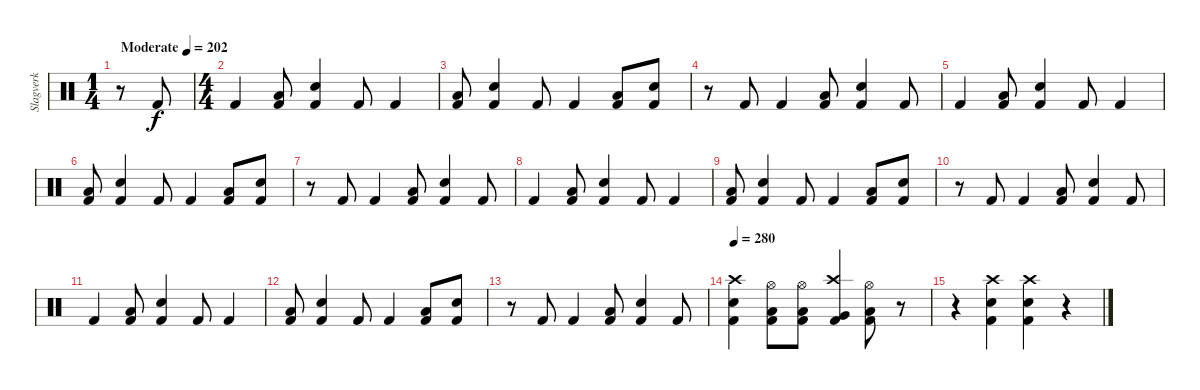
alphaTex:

\track ("Slagverk" "Slagverk") {instrument percussion}
\staff {score}
\articulation defaults
\ts (1 4)
\tempo (202 "Moderate")
\clef neutral
\ks c
r.8{dy f} "Kick (hit) 2".8 |
\ts (4 4)
"Kick (hit) 2".4 ("Low Floor Tom (hit)" "Kick (hit) 2").8 ("Snare (hit) 2" "Kick (hit) 2").4 "Kick (hit) 2".8 "Kick (hit) 2".4 |
("Low Floor Tom (hit)" "Kick (hit) 2").8 ("Snare (hit) 2" "Kick (hit) 2").4 "Kick (hit) 2".8 "Kick (hit) 2".4 ("Low Floor Tom (hit)" "Kick (hit) 2").8 ("Snare (hit) 2" "Kick (hit) 2").8 |
r.8 "Kick (hit) 2".8 "Kick (hit) 2".4 ("Low Floor Tom (hit)" "Kick (hit) 2").8 ("Snare (hit) 2" "Kick (hit) 2").4 "Kick (hit) 2".8 |
"Kick (hit) 2".4 ("Low Floor Tom (hit)" "Kick (hit) 2").8 ("Snare (hit) 2" "Kick (hit) 2").4 "Kick (hit) 2".8 "Kick (hit) 2".4 |
("Low Floor Tom (hit)" "Kick (hit) 2").8 ("Snare (hit) 2" "Kick (hit) 2").4 "Kick (hit) 2".8 "Kick (hit) 2".4 ("Low Floor Tom (hit)" "Kick (hit) 2").8 ("Snare (hit) 2" "Kick (hit) 2").8 |
r.8 "Kick (hit) 2".8 "Kick (hit) 2".4 ("Low Floor Tom (hit)" "Kick (hit) 2").8 ("Snare (hit) 2" "Kick (hit) 2").4 "Kick (hit) 2".8 |
"Kick (hit) 2".4 ("Low Floor Tom (hit)" "Kick (hit) 2").8 ("Snare (hit) 2" "Kick (hit) 2").4 "Kick (hit) 2".8 "Kick (hit) 2".4 |
("Low Floor Tom (hit)" "Kick (hit) 2").8 ("Snare (hit) 2" "Kick (hit) 2").4 "Kick (hit) 2".8 "Kick (hit) 2".4 ("Low Floor Tom (hit)" "Kick (hit) 2").8 ("Snare (hit) 2" "Kick (hit) 2").8 |
r.8 "Kick (hit) 2".8 "Kick (hit) 2".4 ("Low Floor Tom (hit)" "Kick (hit) 2").8 ("Snare (hit) 2" "Kick (hit) 2").4 "Kick (hit) 2".8 |
"Kick (hit) 2".4 ("Low Floor Tom (hit)" "Kick (hit) 2").8 ("Snare (hit) 2" "Kick (hit) 2").4 "Kick (hit) 2".8 "Kick (hit) 2".4 |
("Low Floor Tom (hit)" "Kick (hit) 2").8 ("Snare (hit) 2" "Kick (hit) 2").4 "Kick (hit) 2".8 "Kick (hit) 2".4 ("Low Floor Tom (hit)" "Kick (hit) 2").8 ("Snare (hit) 2" "Kick (hit) 2").8 |
r.8 "Kick (hit) 2".8 "Kick (hit) 2".4 ("Low Floor Tom (hit)" "Kick (hit) 2").8 ("Snare (hit) 2" "Kick (hit) 2").4 "Kick (hit) 2".8 |
\tempo 280
("Crash high (hit)" "Snare (hit) 2" "Kick (hit) 2").4 ("Hi-Hat (open)" "Low Floor Tom (hit)" "Kick (hit) 2").8 ("Hi-Hat (open)" "Low Floor Tom (hit)" "Kick (hit) 2").8 ("Crash high (hit)" "Very Low Tom (hit)" "Kick (hit) 2").4 ("Hi-Hat (open)" "Low Floor Tom (hit)" "Kick (hit) 2").8 r.8 |
r.4 ("Crash high (hit)" "Snare (hit) 2" "Kick (hit) 2").4 ("Crash high (hit)" "Snare (hit) 2" "Kick (hit) 2").4 r.4
